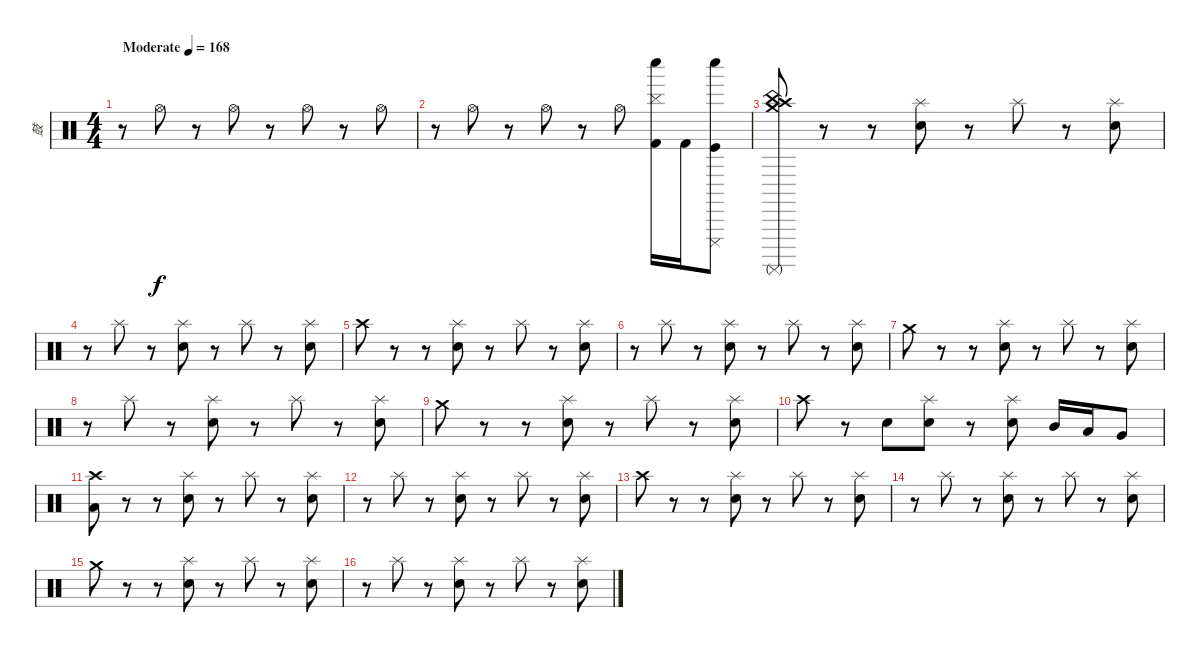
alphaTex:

\track ("鼓" "鼓") {instrument percussion}
\staff {score}
\articulation defaults
\ts (4 4)
\tempo (168 "Moderate")
\clef neutral
\ks c
r.8{dy f} "Hi-Hat (open)".8 r.8 "Hi-Hat (open)".8 r.8 "Hi-Hat (open)".8 r.8 "Hi-Hat (open)".8 |
r.8 "Hi-Hat (open)".8 r.8 "Hi-Hat (open)".8 r.8 "Hi-Hat (open)".8 ("Cymbal (hit)" "Kick (hit) 2" "Whistle low (hit)").16 "Kick (hit) 2".16 ("Cuica (mute)" "Kick (hit)" "Whistle low (hit)").8 |
("Crash medium (hit)" "Crash high (hit)" "China (hit)" "Surdo (mute)").8 r.8 r.8 ("Splash (hit)" "Snare (hit) 2").8 r.8 "Splash (hit)".8 r.8 ("Splash (hit)" "Snare (hit) 2").8 |
r.8 "Splash (hit)".8 r.8 ("Splash (hit)" "Snare (hit) 2").8 r.8 "Splash (hit)".8 r.8 ("Splash (hit)" "Snare (hit) 2").8 |
"Crash high (hit)".8 r.8 r.8 ("Splash (hit)" "Snare (hit) 2").8 r.8 "Splash (hit)".8 r.8 ("Splash (hit)" "Snare (hit) 2").8 |
r.8 "Splash (hit)".8 r.8 ("Splash (hit)" "Snare (hit) 2").8 r.8 "Splash (hit)".8 r.8 ("Splash (hit)" "Snare (hit) 2").8 |
"Crash medium (hit)".8 r.8 r.8 ("Splash (hit)" "Snare (hit) 2").8 r.8 "Splash (hit)".8 r.8 ("Splash (hit)" "Snare (hit) 2").8 |
r.8 "Splash (hit)".8 r.8 ("Splash (hit)" "Snare (hit) 2").8 r.8 "Splash (hit)".8 r.8 ("Splash (hit)" "Snare (hit) 2").8 |
"Crash medium (hit)".8 r.8 r.8 ("Splash (hit)" "Snare (hit) 2").8 r.8 "Splash (hit)".8 r.8 ("Splash (hit)" "Snare (hit) 2").8 |
"Crash high (hit)".8 r.8 "Snare (hit) 2".8 ("Splash (hit)" "Snare (hit) 2").8 r.8 ("Splash (hit)" "Snare (hit) 2").8 "Mid Tom (hit)".16 "Low Tom (hit)".16 "Very Low Tom (hit)".8 |
("Crash high (hit)" "Low Floor Tom (hit)").8 r.8 r.8 ("Splash (hit)" "Snare (hit) 2").8 r.8 "Splash (hit)".8 r.8 ("Splash (hit)" "Snare (hit) 2").8 |
r.8 "Splash (hit)".8 r.8 ("Splash (hit)" "Snare (hit) 2").8 r.8 "Splash (hit)".8 r.8 ("Splash (hit)" "Snare (hit) 2").8 |
"Crash high (hit)".8 r.8 r.8 ("Splash (hit)" "Snare (hit) 2").8 r.8 "Splash (hit)".8 r.8 ("Splash (hit)" "Snare (hit) 2").8 |
r.8 "Splash (hit)".8 r.8 ("Splash (hit)" "Snare (hit) 2").8 r.8 "Splash (hit)".8 r.8 ("Splash (hit)" "Snare (hit) 2").8 |
"Crash medium (hit)".8 r.8 r.8 ("Splash (hit)" "Snare (hit) 2").8 r.8 "Splash (hit)".8 r.8 ("Splash (hit)" "Snare (hit) 2").8 |
r.8 "Splash (hit)".8 r.8 ("Splash (hit)" "Snare (hit) 2").8 r.8 "Splash (hit)".8 r.8 ("Splash (hit)" "Snare (hit) 2").8
